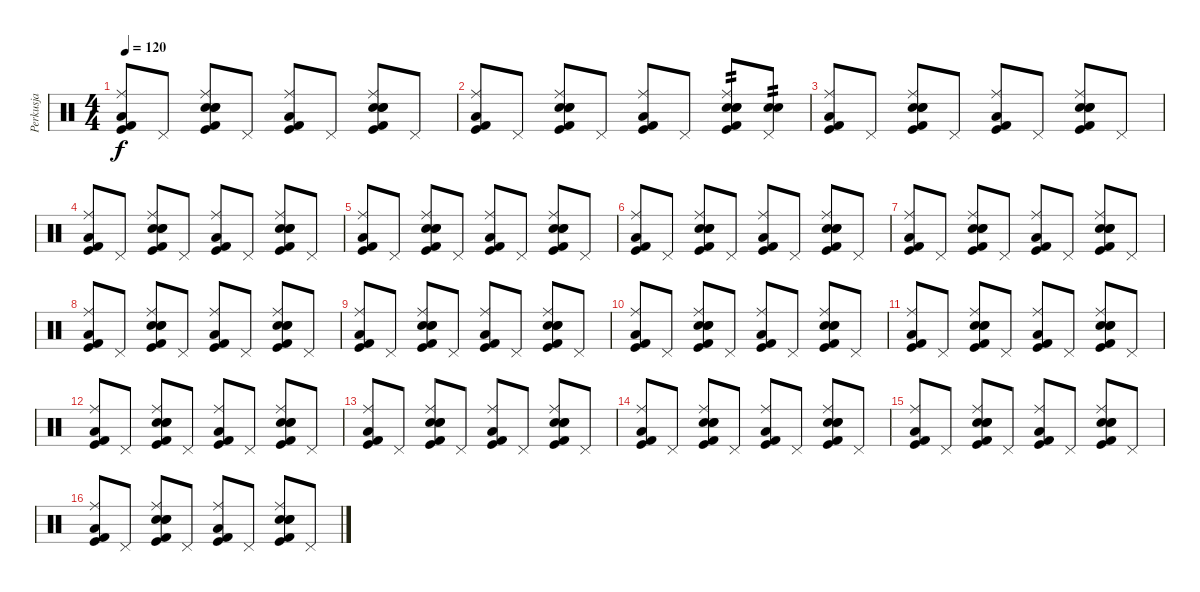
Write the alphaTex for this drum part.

\track ("Perkusja" "Perkusja") {instrument percussion}
\staff {score}
\articulation defaults
\ts (4 4)
\tempo 120
\clef neutral
\ks c
("Kick (hit) 2" "Kick (hit)" "Low Floor Tom (hit)" "Ride (middle)").8{dy f} "Pedal Hi-Hat (hit)".8 ("Kick (hit) 2" "Kick (hit)" "Snare (hit) 2" "Electric Snare (hit)" "Hand Clap (hit)" "Ride (middle)").8 "Pedal Hi-Hat (hit)".8 ("Kick (hit) 2" "Kick (hit)" "Low Floor Tom (hit)" "Ride (middle)").8 "Pedal Hi-Hat (hit)".8 ("Kick (hit) 2" "Kick (hit)" "Snare (hit) 2" "Electric Snare (hit)" "Hand Clap (hit)" "Ride (middle)").8 "Pedal Hi-Hat (hit)".8 |
("Kick (hit) 2" "Kick (hit)" "Low Floor Tom (hit)" "Ride (middle)").8 "Pedal Hi-Hat (hit)".8 ("Kick (hit) 2" "Kick (hit)" "Snare (hit) 2" "Electric Snare (hit)" "Hand Clap (hit)" "Ride (middle)").8 "Pedal Hi-Hat (hit)".8 ("Kick (hit) 2" "Kick (hit)" "Low Floor Tom (hit)" "Ride (middle)").8 "Pedal Hi-Hat (hit)".8 ("Kick (hit) 2" "Kick (hit)" "Snare (hit) 2" "Electric Snare (hit)" "Hand Clap (hit)" "Ride (middle)").8{tp 2} ("Pedal Hi-Hat (hit)" "Snare (hit) 2" "Electric Snare (hit)").8{tp 2} |
("Kick (hit) 2" "Kick (hit)" "Low Floor Tom (hit)" "Ride (middle)").8 "Pedal Hi-Hat (hit)".8 ("Kick (hit) 2" "Kick (hit)" "Snare (hit) 2" "Electric Snare (hit)" "Hand Clap (hit)" "Ride (middle)").8 "Pedal Hi-Hat (hit)".8 ("Kick (hit) 2" "Kick (hit)" "Low Floor Tom (hit)" "Ride (middle)").8 "Pedal Hi-Hat (hit)".8 ("Kick (hit) 2" "Kick (hit)" "Snare (hit) 2" "Electric Snare (hit)" "Hand Clap (hit)" "Ride (middle)").8 "Pedal Hi-Hat (hit)".8 |
("Kick (hit) 2" "Kick (hit)" "Low Floor Tom (hit)" "Ride (middle)").8 "Pedal Hi-Hat (hit)".8 ("Kick (hit) 2" "Kick (hit)" "Snare (hit) 2" "Electric Snare (hit)" "Hand Clap (hit)" "Ride (middle)").8 "Pedal Hi-Hat (hit)".8 ("Kick (hit) 2" "Kick (hit)" "Low Floor Tom (hit)" "Ride (middle)").8 "Pedal Hi-Hat (hit)".8 ("Kick (hit) 2" "Kick (hit)" "Snare (hit) 2" "Electric Snare (hit)" "Hand Clap (hit)" "Ride (middle)").8 "Pedal Hi-Hat (hit)".8 |
("Kick (hit) 2" "Kick (hit)" "Low Floor Tom (hit)" "Ride (middle)").8 "Pedal Hi-Hat (hit)".8 ("Kick (hit) 2" "Kick (hit)" "Snare (hit) 2" "Electric Snare (hit)" "Hand Clap (hit)" "Ride (middle)").8 "Pedal Hi-Hat (hit)".8 ("Kick (hit) 2" "Kick (hit)" "Low Floor Tom (hit)" "Ride (middle)").8 "Pedal Hi-Hat (hit)".8 ("Kick (hit) 2" "Kick (hit)" "Snare (hit) 2" "Electric Snare (hit)" "Hand Clap (hit)" "Ride (middle)").8 "Pedal Hi-Hat (hit)".8 |
("Kick (hit) 2" "Kick (hit)" "Low Floor Tom (hit)" "Ride (middle)").8 "Pedal Hi-Hat (hit)".8 ("Kick (hit) 2" "Kick (hit)" "Snare (hit) 2" "Electric Snare (hit)" "Hand Clap (hit)" "Ride (middle)").8 "Pedal Hi-Hat (hit)".8 ("Kick (hit) 2" "Kick (hit)" "Low Floor Tom (hit)" "Ride (middle)").8 "Pedal Hi-Hat (hit)".8 ("Kick (hit) 2" "Kick (hit)" "Snare (hit) 2" "Electric Snare (hit)" "Hand Clap (hit)" "Ride (middle)").8 "Pedal Hi-Hat (hit)".8 |
("Kick (hit) 2" "Kick (hit)" "Low Floor Tom (hit)" "Ride (middle)").8 "Pedal Hi-Hat (hit)".8 ("Kick (hit) 2" "Kick (hit)" "Snare (hit) 2" "Electric Snare (hit)" "Hand Clap (hit)" "Ride (middle)").8 "Pedal Hi-Hat (hit)".8 ("Kick (hit) 2" "Kick (hit)" "Low Floor Tom (hit)" "Ride (middle)").8 "Pedal Hi-Hat (hit)".8 ("Kick (hit) 2" "Kick (hit)" "Snare (hit) 2" "Electric Snare (hit)" "Hand Clap (hit)" "Ride (middle)").8 "Pedal Hi-Hat (hit)".8 |
("Kick (hit) 2" "Kick (hit)" "Low Floor Tom (hit)" "Ride (middle)").8 "Pedal Hi-Hat (hit)".8 ("Kick (hit) 2" "Kick (hit)" "Snare (hit) 2" "Electric Snare (hit)" "Hand Clap (hit)" "Ride (middle)").8 "Pedal Hi-Hat (hit)".8 ("Kick (hit) 2" "Kick (hit)" "Low Floor Tom (hit)" "Ride (middle)").8 "Pedal Hi-Hat (hit)".8 ("Kick (hit) 2" "Kick (hit)" "Snare (hit) 2" "Electric Snare (hit)" "Hand Clap (hit)" "Ride (middle)").8 "Pedal Hi-Hat (hit)".8 |
("Kick (hit) 2" "Kick (hit)" "Low Floor Tom (hit)" "Ride (middle)").8 "Pedal Hi-Hat (hit)".8 ("Kick (hit) 2" "Kick (hit)" "Snare (hit) 2" "Electric Snare (hit)" "Hand Clap (hit)" "Ride (middle)").8 "Pedal Hi-Hat (hit)".8 ("Kick (hit) 2" "Kick (hit)" "Low Floor Tom (hit)" "Ride (middle)").8 "Pedal Hi-Hat (hit)".8 ("Kick (hit) 2" "Kick (hit)" "Snare (hit) 2" "Electric Snare (hit)" "Hand Clap (hit)" "Ride (middle)").8 "Pedal Hi-Hat (hit)".8 |
("Kick (hit) 2" "Kick (hit)" "Low Floor Tom (hit)" "Ride (middle)").8 "Pedal Hi-Hat (hit)".8 ("Kick (hit) 2" "Kick (hit)" "Snare (hit) 2" "Electric Snare (hit)" "Hand Clap (hit)" "Ride (middle)").8 "Pedal Hi-Hat (hit)".8 ("Kick (hit) 2" "Kick (hit)" "Low Floor Tom (hit)" "Ride (middle)").8 "Pedal Hi-Hat (hit)".8 ("Kick (hit) 2" "Kick (hit)" "Snare (hit) 2" "Electric Snare (hit)" "Hand Clap (hit)" "Ride (middle)").8 "Pedal Hi-Hat (hit)".8 |
("Kick (hit) 2" "Kick (hit)" "Low Floor Tom (hit)" "Ride (middle)").8 "Pedal Hi-Hat (hit)".8 ("Kick (hit) 2" "Kick (hit)" "Snare (hit) 2" "Electric Snare (hit)" "Hand Clap (hit)" "Ride (middle)").8 "Pedal Hi-Hat (hit)".8 ("Kick (hit) 2" "Kick (hit)" "Low Floor Tom (hit)" "Ride (middle)").8 "Pedal Hi-Hat (hit)".8 ("Kick (hit) 2" "Kick (hit)" "Snare (hit) 2" "Electric Snare (hit)" "Hand Clap (hit)" "Ride (middle)").8 "Pedal Hi-Hat (hit)".8 |
("Kick (hit) 2" "Kick (hit)" "Low Floor Tom (hit)" "Ride (middle)").8 "Pedal Hi-Hat (hit)".8 ("Kick (hit) 2" "Kick (hit)" "Snare (hit) 2" "Electric Snare (hit)" "Hand Clap (hit)" "Ride (middle)").8 "Pedal Hi-Hat (hit)".8 ("Kick (hit) 2" "Kick (hit)" "Low Floor Tom (hit)" "Ride (middle)").8 "Pedal Hi-Hat (hit)".8 ("Kick (hit) 2" "Kick (hit)" "Snare (hit) 2" "Electric Snare (hit)" "Hand Clap (hit)" "Ride (middle)").8 "Pedal Hi-Hat (hit)".8 |
("Kick (hit) 2" "Kick (hit)" "Low Floor Tom (hit)" "Ride (middle)").8 "Pedal Hi-Hat (hit)".8 ("Kick (hit) 2" "Kick (hit)" "Snare (hit) 2" "Electric Snare (hit)" "Hand Clap (hit)" "Ride (middle)").8 "Pedal Hi-Hat (hit)".8 ("Kick (hit) 2" "Kick (hit)" "Low Floor Tom (hit)" "Ride (middle)").8 "Pedal Hi-Hat (hit)".8 ("Kick (hit) 2" "Kick (hit)" "Snare (hit) 2" "Electric Snare (hit)" "Hand Clap (hit)" "Ride (middle)").8 "Pedal Hi-Hat (hit)".8 |
("Kick (hit) 2" "Kick (hit)" "Low Floor Tom (hit)" "Ride (middle)").8 "Pedal Hi-Hat (hit)".8 ("Kick (hit) 2" "Kick (hit)" "Snare (hit) 2" "Electric Snare (hit)" "Hand Clap (hit)" "Ride (middle)").8 "Pedal Hi-Hat (hit)".8 ("Kick (hit) 2" "Kick (hit)" "Low Floor Tom (hit)" "Ride (middle)").8 "Pedal Hi-Hat (hit)".8 ("Kick (hit) 2" "Kick (hit)" "Snare (hit) 2" "Electric Snare (hit)" "Hand Clap (hit)" "Ride (middle)").8 "Pedal Hi-Hat (hit)".8 |
("Kick (hit) 2" "Kick (hit)" "Low Floor Tom (hit)" "Ride (middle)").8 "Pedal Hi-Hat (hit)".8 ("Kick (hit) 2" "Kick (hit)" "Snare (hit) 2" "Electric Snare (hit)" "Hand Clap (hit)" "Ride (middle)").8 "Pedal Hi-Hat (hit)".8 ("Kick (hit) 2" "Kick (hit)" "Low Floor Tom (hit)" "Ride (middle)").8 "Pedal Hi-Hat (hit)".8 ("Kick (hit) 2" "Kick (hit)" "Snare (hit) 2" "Electric Snare (hit)" "Hand Clap (hit)" "Ride (middle)").8 "Pedal Hi-Hat (hit)".8 |
("Kick (hit) 2" "Kick (hit)" "Low Floor Tom (hit)" "Ride (middle)").8 "Pedal Hi-Hat (hit)".8 ("Kick (hit) 2" "Kick (hit)" "Snare (hit) 2" "Electric Snare (hit)" "Hand Clap (hit)" "Ride (middle)").8 "Pedal Hi-Hat (hit)".8 ("Kick (hit) 2" "Kick (hit)" "Low Floor Tom (hit)" "Ride (middle)").8 "Pedal Hi-Hat (hit)".8 ("Kick (hit) 2" "Kick (hit)" "Snare (hit) 2" "Electric Snare (hit)" "Hand Clap (hit)" "Ride (middle)").8 "Pedal Hi-Hat (hit)".8
